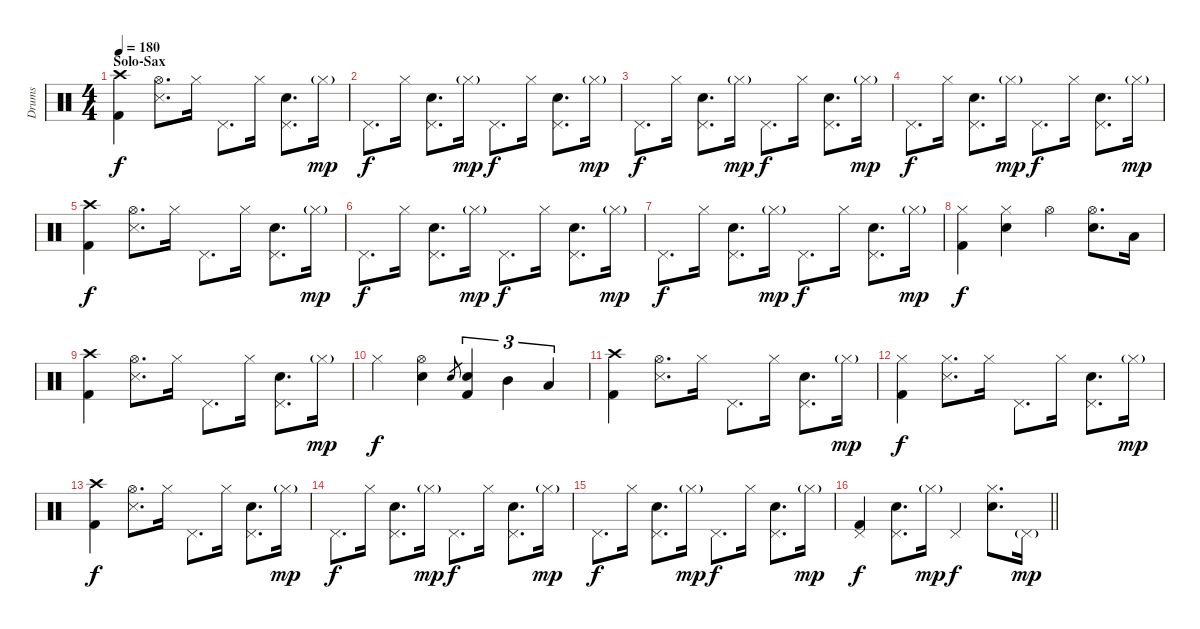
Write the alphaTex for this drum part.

\track ("Drums" "Drums") {instrument percussion}
\staff {score}
\articulation defaults
\ts (4 4)
\section ("" "Solo-Sax")
\tempo 180
\clef neutral
\ks c
("Crash high (hit)" "Kick (hit) 2").4{dy f} ("Hi-Hat (open)" "Snare (side stick) 3").8{d} "Hi-Hat (closed)".16 "Pedal Hi-Hat (hit)".8{d} "Hi-Hat (closed)".16 ("Pedal Hi-Hat (hit)" "Snare (hit) 2").8{d} "Hi-Hat (closed)"{g}.16{dy mp} |
"Pedal Hi-Hat (hit)".8{d dy f} "Hi-Hat (closed)".16 ("Pedal Hi-Hat (hit)" "Snare (hit) 2").8{d} "Hi-Hat (closed)"{g}.16{dy mp} "Pedal Hi-Hat (hit)".8{d dy f} "Hi-Hat (closed)".16 ("Pedal Hi-Hat (hit)" "Snare (hit) 2").8{d} "Hi-Hat (closed)"{g}.16{dy mp} |
"Pedal Hi-Hat (hit)".8{d dy f} "Hi-Hat (closed)".16 ("Pedal Hi-Hat (hit)" "Snare (hit) 2").8{d} "Hi-Hat (closed)"{g}.16{dy mp} "Pedal Hi-Hat (hit)".8{d dy f} "Hi-Hat (closed)".16 ("Pedal Hi-Hat (hit)" "Snare (hit) 2").8{d} "Hi-Hat (closed)"{g}.16{dy mp} |
"Pedal Hi-Hat (hit)".8{d dy f} "Hi-Hat (closed)".16 ("Pedal Hi-Hat (hit)" "Snare (hit) 2").8{d} "Hi-Hat (closed)"{g}.16{dy mp} "Pedal Hi-Hat (hit)".8{d dy f} "Hi-Hat (closed)".16 ("Pedal Hi-Hat (hit)" "Snare (hit) 2").8{d} "Hi-Hat (closed)"{g}.16{dy mp} |
("Crash high (hit)" "Kick (hit) 2").4{dy f} ("Hi-Hat (open)" "Snare (side stick) 3").8{d} "Hi-Hat (closed)".16 "Pedal Hi-Hat (hit)".8{d} "Hi-Hat (closed)".16 ("Pedal Hi-Hat (hit)" "Snare (hit) 2").8{d} "Hi-Hat (closed)"{g}.16{dy mp} |
"Pedal Hi-Hat (hit)".8{d dy f} "Hi-Hat (closed)".16 ("Pedal Hi-Hat (hit)" "Snare (hit) 2").8{d} "Hi-Hat (closed)"{g}.16{dy mp} "Pedal Hi-Hat (hit)".8{d dy f} "Hi-Hat (closed)".16 ("Pedal Hi-Hat (hit)" "Snare (hit) 2").8{d} "Hi-Hat (closed)"{g}.16{dy mp} |
"Pedal Hi-Hat (hit)".8{d dy f} "Hi-Hat (closed)".16 ("Pedal Hi-Hat (hit)" "Snare (hit) 2").8{d} "Hi-Hat (closed)"{g}.16{dy mp} "Pedal Hi-Hat (hit)".8{d dy f} "Hi-Hat (closed)".16 ("Pedal Hi-Hat (hit)" "Snare (hit) 2").8{d} "Hi-Hat (closed)"{g}.16{dy mp} |
("Hi-Hat (closed)" "Kick (hit) 2").4{dy f} ("Hi-Hat (closed)" "Snare (hit) 2").4 "Hi-Hat (open)".4 ("Hi-Hat (open)" "Snare (hit) 2").8{d} "Low Tom (hit)".16 |
("Crash high (hit)" "Kick (hit) 2").4 ("Hi-Hat (open)" "Snare (side stick) 3").8{d} "Hi-Hat (closed)".16 "Pedal Hi-Hat (hit)".8{d} "Hi-Hat (closed)".16 ("Pedal Hi-Hat (hit)" "Snare (hit) 2").8{d} "Hi-Hat (closed)"{g}.16{dy mp} |
"Hi-Hat (closed)".4{dy f} ("Hi-Hat (open)" "Snare (hit) 2").4 "Snare (hit) 2".8{gr} ("Snare (hit) 2" "Kick (hit) 2").4{tu (3 2)} "Mid Tom (hit)".4{tu (3 2)} "Low Tom (hit)".4{tu (3 2)} |
("Crash high (hit)" "Kick (hit) 2").4 ("Hi-Hat (open)" "Snare (side stick) 3").8{d} "Hi-Hat (closed)".16 "Pedal Hi-Hat (hit)".8{d} "Hi-Hat (closed)".16 ("Pedal Hi-Hat (hit)" "Snare (hit) 2").8{d} "Hi-Hat (closed)"{g}.16{dy mp} |
("Hi-Hat (closed)" "Kick (hit) 2").4{dy f} ("Hi-Hat (closed)" "Snare (side stick) 3").8{d} "Hi-Hat (closed)".16 "Pedal Hi-Hat (hit)".8{d} "Hi-Hat (closed)".16 ("Pedal Hi-Hat (hit)" "Snare (hit) 2").8{d} "Hi-Hat (closed)"{g}.16{dy mp} |
("Crash high (hit)" "Kick (hit) 2").4{dy f} ("Hi-Hat (open)" "Snare (side stick) 3").8{d} "Hi-Hat (closed)".16 "Pedal Hi-Hat (hit)".8{d} "Hi-Hat (closed)".16 ("Pedal Hi-Hat (hit)" "Snare (hit) 2").8{d} "Hi-Hat (closed)"{g}.16{dy mp} |
"Pedal Hi-Hat (hit)".8{d dy f} "Hi-Hat (closed)".16 ("Pedal Hi-Hat (hit)" "Snare (hit) 2").8{d} "Hi-Hat (closed)"{g}.16{dy mp} "Pedal Hi-Hat (hit)".8{d dy f} "Hi-Hat (closed)".16 ("Pedal Hi-Hat (hit)" "Snare (hit) 2").8{d} "Hi-Hat (closed)"{g}.16{dy mp} |
"Pedal Hi-Hat (hit)".8{d dy f} "Hi-Hat (closed)".16 ("Pedal Hi-Hat (hit)" "Snare (hit) 2").8{d} "Hi-Hat (closed)"{g}.16{dy mp} "Pedal Hi-Hat (hit)".8{d dy f} "Hi-Hat (closed)".16 ("Pedal Hi-Hat (hit)" "Snare (hit) 2").8{d} "Hi-Hat (closed)"{g}.16{dy mp} |
\barLineRight lightlight
("Pedal Hi-Hat (hit)" "Kick (hit) 2").4{dy f} ("Pedal Hi-Hat (hit)" "Snare (hit) 2").8{d} "Hi-Hat (closed)"{g}.16{dy mp} "Pedal Hi-Hat (hit)".4{dy f} ("Hi-Hat (closed)" "Snare (hit) 2").8{d} "Pedal Hi-Hat (hit)"{g}.16{dy mp}
